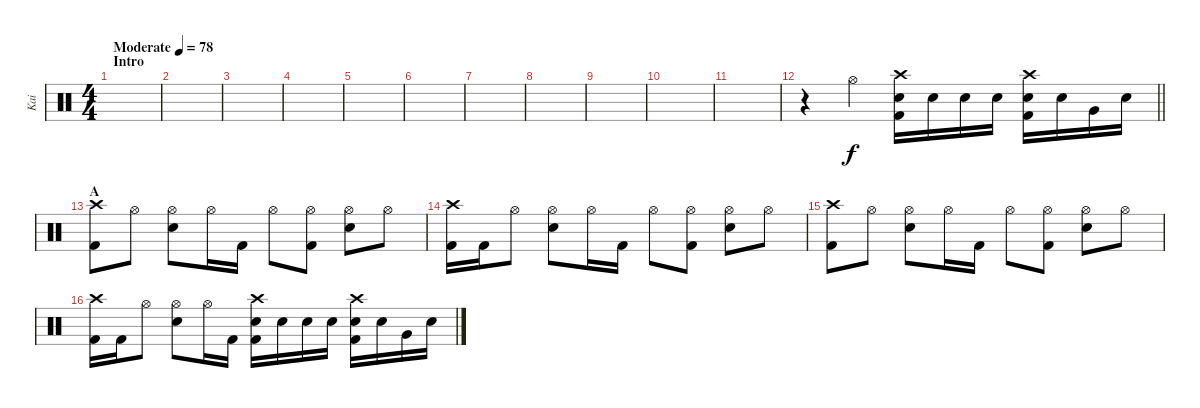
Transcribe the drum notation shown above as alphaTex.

\track ("Kai" "Kai") {instrument percussion}
\staff {score}
\articulation defaults
\ts (4 4)
\section ("" "Intro")
\tempo (78 "Moderate")
\clef neutral
\ks c
|
|
|
|
|
|
|
|
|
|
|
\barLineRight lightlight
r.4 "Hi-Hat (open)".4 ("Crash high (hit)" "Electric Snare (hit)" "Kick (hit) 2").16 "Electric Snare (hit)".16 "Electric Snare (hit)".16 "Electric Snare (hit)".16 ("Crash high (hit)" "Electric Snare (hit)" "Kick (hit) 2").16 "Electric Snare (hit)".16 "Very Low Tom (hit)".16 "Electric Snare (hit)".16 |
\section ("" "A")
("Crash high (hit)" "Kick (hit) 2").8 "Hi-Hat (open)".8 ("Hi-Hat (open)" "Electric Snare (hit)").8 "Hi-Hat (open)".16 "Kick (hit) 2".16 "Hi-Hat (open)".8 ("Hi-Hat (open)" "Kick (hit) 2").8 ("Hi-Hat (open)" "Electric Snare (hit)").8 "Hi-Hat (open)".8 |
("Crash high (hit)" "Kick (hit) 2").16 "Kick (hit) 2".16 "Hi-Hat (open)".8 ("Hi-Hat (open)" "Electric Snare (hit)").8 "Hi-Hat (open)".16 "Kick (hit) 2".16 "Hi-Hat (open)".8 ("Hi-Hat (open)" "Kick (hit) 2").8 ("Hi-Hat (open)" "Electric Snare (hit)").8 "Hi-Hat (open)".8 |
("Crash high (hit)" "Kick (hit) 2").8 "Hi-Hat (open)".8 ("Hi-Hat (open)" "Electric Snare (hit)").8 "Hi-Hat (open)".16 "Kick (hit) 2".16 "Hi-Hat (open)".8 ("Hi-Hat (open)" "Kick (hit) 2").8 ("Hi-Hat (open)" "Electric Snare (hit)").8 "Hi-Hat (open)".8 |
("Crash high (hit)" "Kick (hit) 2").16 "Kick (hit) 2".16 "Hi-Hat (open)".8 ("Hi-Hat (open)" "Electric Snare (hit)").8 "Hi-Hat (open)".16 "Kick (hit) 2".16 ("Crash high (hit)" "Electric Snare (hit)" "Kick (hit) 2").16 "Electric Snare (hit)".16 "Electric Snare (hit)".16 "Electric Snare (hit)".16 ("Crash high (hit)" "Electric Snare (hit)" "Kick (hit) 2").16 "Electric Snare (hit)".16 "Very Low Tom (hit)".16 "Electric Snare (hit)".16
